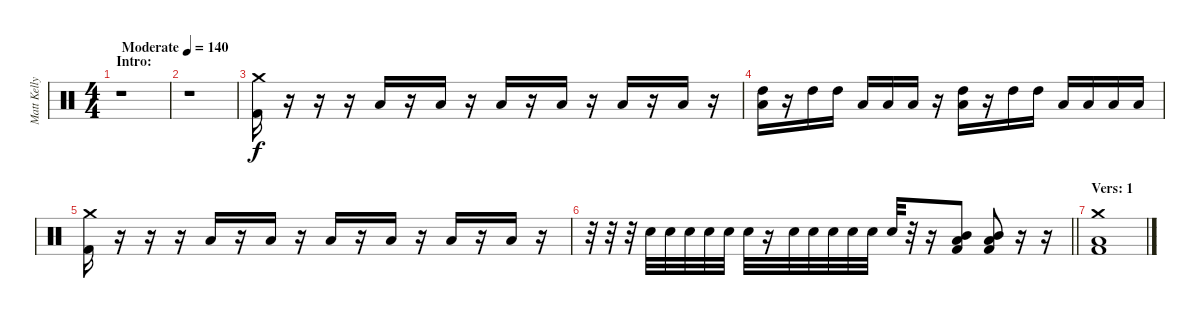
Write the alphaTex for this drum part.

\track ("Matt Kelly" "Matt Kelly") {instrument percussion}
\staff {score}
\articulation defaults
\ts (4 4)
\section ("" "Intro:")
\tempo (140 "Moderate")
\clef neutral
\ks c
r.1{dy f} |
r.1 |
("Crash medium (hit)" "Kick (hit) 2").16 r.16 r.16 r.16 "Low Tom (hit)".16 r.16 "Low Tom (hit)".16 r.16 "Low Tom (hit)".16 r.16 "Low Tom (hit)".16 r.16 "Low Tom (hit)".16 r.16 "Low Tom (hit)".16 r.16 |
("High Tom (hit)" "Low Tom (hit)").16 r.16 "High Tom (hit)".16 "High Tom (hit)".16 "Low Tom (hit)".16 "Low Tom (hit)".16 "Low Floor Tom (hit)".16 r.16 ("High Tom (hit)" "Low Tom (hit)").16 r.16 "High Tom (hit)".16 "High Tom (hit)".16 "Low Tom (hit)".16 "Low Tom (hit)".16 "Low Tom (hit)".16 "Low Tom (hit)".16 |
("Crash medium (hit)" "Kick (hit) 2").16 r.16 r.16 r.16 "Low Tom (hit)".16 r.16 "Low Tom (hit)".16 r.16 "Low Tom (hit)".16 r.16 "Low Tom (hit)".16 r.16 "Low Tom (hit)".16 r.16 "Low Tom (hit)".16 r.16 |
\barLineRight lightlight
r.32 r.32 r.32 "Electric Snare (hit)".32 "Electric Snare (hit)".32 "Electric Snare (hit)".32 "Electric Snare (hit)".32 "Electric Snare (hit)".32 "Snare (hit) 2".32 r.16 "Electric Snare (hit)".32 "Electric Snare (hit)".32 "Electric Snare (hit)".32 "Electric Snare (hit)".32 "Electric Snare (hit)".32 "Snare (hit) 2".32 r.32 r.16 ("Low Floor Tom (hit)" "Mid Tom (hit)" "Kick (hit) 2").8 ("Low Floor Tom (hit)" "Mid Tom (hit)" "Kick (hit) 2").8 r.16 r.16 |
\section ("" "Vers: 1")
("Crash medium (hit)" "Low Floor Tom (hit)" "Kick (hit) 2").1
